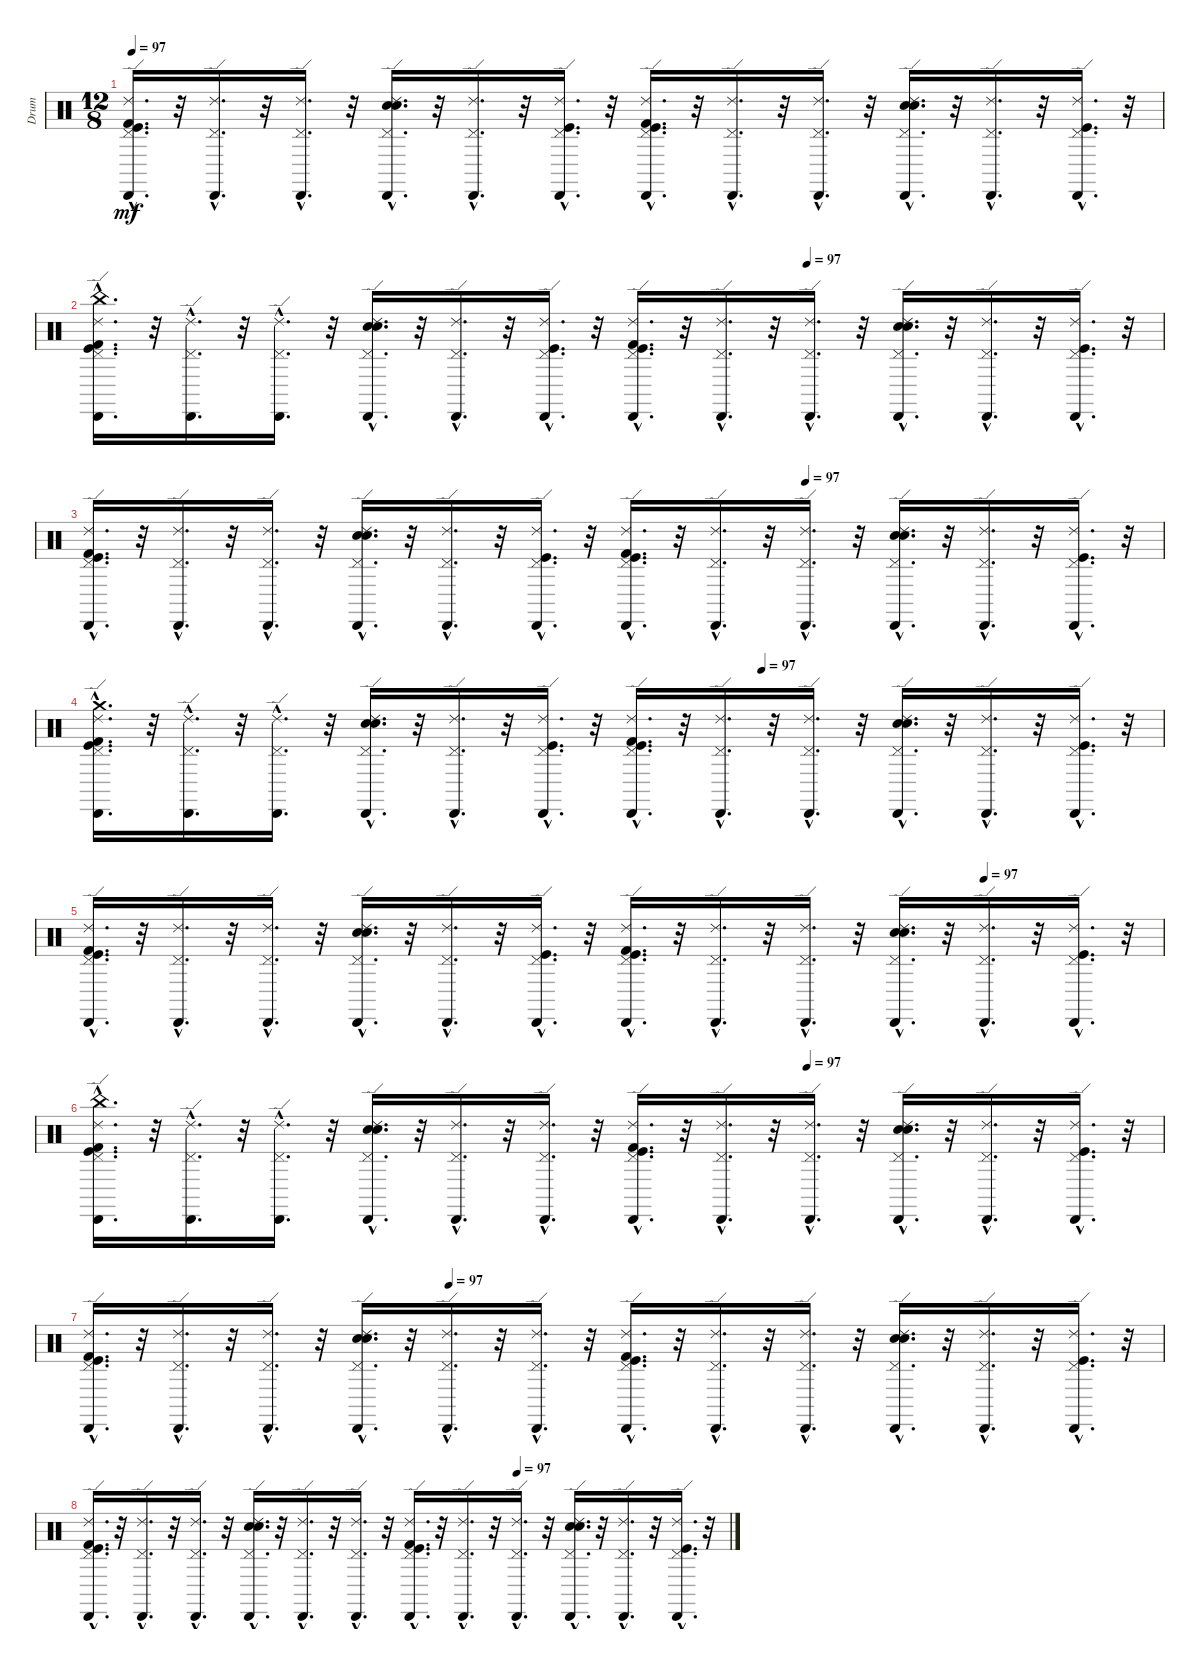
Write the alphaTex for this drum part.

\track ("Drum" "Drum") {instrument percussion}
\staff {score}
\articulation defaults
\ts (12 8)
\tempo 97
\clef neutral
\ks c
("Kick (hit)"{hac} "Pedal Hi-Hat (hit)"{hac} "Cabasa (hit)"{hac} "Ride (edge) 2"{hac} "Kick (hit) 2"{hac}).16{d dy mf} r.32 ("Cabasa (hit)"{hac} "Pedal Hi-Hat (hit)"{hac} "Ride (edge) 2"{hac}).16{d} r.32 ("Pedal Hi-Hat (hit)"{hac} "Cabasa (hit)"{hac} "Ride (edge) 2"{hac}).16{d} r.32 ("Pedal Hi-Hat (hit)"{hac} "Electric Snare (hit)"{hac} "Snare (hit) 2"{hac} "Cabasa (hit)"{hac} "Ride (edge) 2"{hac}).16{d} r.32 ("Cabasa (hit)"{hac} "Pedal Hi-Hat (hit)"{hac} "Ride (edge) 2"{hac}).16{d} r.32 ("Kick (hit)"{hac} "Cabasa (hit)"{hac} "Pedal Hi-Hat (hit)"{hac} "Ride (edge) 2"{hac}).16{d} r.32 ("Kick (hit) 2"{hac} "Kick (hit)"{hac} "Ride (edge) 2"{hac} "Pedal Hi-Hat (hit)"{hac} "Cabasa (hit)"{hac}).16{d} r.32 ("Cabasa (hit)"{hac} "Pedal Hi-Hat (hit)"{hac} "Ride (edge) 2"{hac}).16{d} r.32 ("Cabasa (hit)"{hac} "Pedal Hi-Hat (hit)"{hac} "Ride (edge) 2"{hac}).16{d} r.32 ("Ride (edge) 2"{hac} "Cabasa (hit)"{hac} "Pedal Hi-Hat (hit)"{hac} "Electric Snare (hit)"{hac} "Snare (hit) 2"{hac}).16{d} r.32 ("Cabasa (hit)"{hac} "Pedal Hi-Hat (hit)"{hac} "Ride (edge) 2"{hac}).16{d} r.32 ("Kick (hit)"{hac} "Cabasa (hit)"{hac} "Pedal Hi-Hat (hit)"{hac} "Ride (edge) 2"{hac}).16{d} r.32 |
\tempo (97 0.6666666666666666)
("China (hit)"{hac} "Kick (hit) 2"{hac} "Ride (edge) 2"{hac} "Cabasa (hit)"{hac} "Pedal Hi-Hat (hit)"{hac} "Kick (hit)"{hac}).16{d} r.32 ("Ride (edge) 2"{hac} "Pedal Hi-Hat (hit)"{hac} "Cabasa (hit)"{hac}).16{d} r.32 ("Ride (edge) 2"{hac} "Cabasa (hit)"{hac} "Pedal Hi-Hat (hit)"{hac}).16{d} r.32 ("Ride (edge) 2"{hac} "Cabasa (hit)"{hac} "Snare (hit) 2"{hac} "Electric Snare (hit)"{hac} "Pedal Hi-Hat (hit)"{hac}).16{d} r.32 ("Ride (edge) 2"{hac} "Pedal Hi-Hat (hit)"{hac} "Cabasa (hit)"{hac}).16{d} r.32 ("Kick (hit)"{hac} "Ride (edge) 2"{hac} "Pedal Hi-Hat (hit)"{hac} "Cabasa (hit)"{hac}).16{d} r.32 ("Cabasa (hit)"{hac} "Pedal Hi-Hat (hit)"{hac} "Ride (edge) 2"{hac} "Kick (hit)"{hac} "Kick (hit) 2"{hac}).16{d} r.32 ("Ride (edge) 2"{hac} "Pedal Hi-Hat (hit)"{hac} "Cabasa (hit)"{hac}).16{d} r.32 ("Ride (edge) 2"{hac} "Pedal Hi-Hat (hit)"{hac} "Cabasa (hit)"{hac}).16{d} r.32 ("Snare (hit) 2"{hac} "Electric Snare (hit)"{hac} "Pedal Hi-Hat (hit)"{hac} "Cabasa (hit)"{hac} "Ride (edge) 2"{hac}).16{d} r.32 ("Ride (edge) 2"{hac} "Pedal Hi-Hat (hit)"{hac} "Cabasa (hit)"{hac}).16{d} r.32 ("Kick (hit)"{hac} "Ride (edge) 2"{hac} "Pedal Hi-Hat (hit)"{hac} "Cabasa (hit)"{hac}).16{d} r.32 |
\tempo (97 0.6666666666666666)
("Kick (hit)"{hac} "Pedal Hi-Hat (hit)"{hac} "Cabasa (hit)"{hac} "Ride (edge) 2"{hac} "Kick (hit) 2"{hac}).16{d} r.32 ("Cabasa (hit)"{hac} "Pedal Hi-Hat (hit)"{hac} "Ride (edge) 2"{hac}).16{d} r.32 ("Pedal Hi-Hat (hit)"{hac} "Cabasa (hit)"{hac} "Ride (edge) 2"{hac}).16{d} r.32 ("Pedal Hi-Hat (hit)"{hac} "Electric Snare (hit)"{hac} "Snare (hit) 2"{hac} "Cabasa (hit)"{hac} "Ride (edge) 2"{hac}).16{d} r.32 ("Cabasa (hit)"{hac} "Pedal Hi-Hat (hit)"{hac} "Ride (edge) 2"{hac}).16{d} r.32 ("Kick (hit)"{hac} "Cabasa (hit)"{hac} "Pedal Hi-Hat (hit)"{hac} "Ride (edge) 2"{hac}).16{d} r.32 ("Kick (hit) 2"{hac} "Kick (hit)"{hac} "Ride (edge) 2"{hac} "Pedal Hi-Hat (hit)"{hac} "Cabasa (hit)"{hac}).16{d} r.32 ("Cabasa (hit)"{hac} "Pedal Hi-Hat (hit)"{hac} "Ride (edge) 2"{hac}).16{d} r.32 ("Cabasa (hit)"{hac} "Pedal Hi-Hat (hit)"{hac} "Ride (edge) 2"{hac}).16{d} r.32 ("Ride (edge) 2"{hac} "Cabasa (hit)"{hac} "Pedal Hi-Hat (hit)"{hac} "Electric Snare (hit)"{hac} "Snare (hit) 2"{hac}).16{d} r.32 ("Cabasa (hit)"{hac} "Pedal Hi-Hat (hit)"{hac} "Ride (edge) 2"{hac}).16{d} r.32 ("Kick (hit)"{hac} "Cabasa (hit)"{hac} "Pedal Hi-Hat (hit)"{hac} "Ride (edge) 2"{hac}).16{d} r.32 |
\tempo (97 0.625)
("Kick (hit)"{hac} "Pedal Hi-Hat (hit)"{hac} "Cabasa (hit)"{hac} "Ride (edge) 2"{hac} "Kick (hit) 2"{hac} "Crash medium (hit)"{hac}).16{d} r.32 ("Cabasa (hit)"{hac} "Pedal Hi-Hat (hit)"{hac} "Ride (edge) 2"{hac}).16{d} r.32 ("Pedal Hi-Hat (hit)"{hac} "Cabasa (hit)"{hac} "Ride (edge) 2"{hac}).16{d} r.32 ("Pedal Hi-Hat (hit)"{hac} "Electric Snare (hit)"{hac} "Snare (hit) 2"{hac} "Cabasa (hit)"{hac} "Ride (edge) 2"{hac}).16{d} r.32 ("Cabasa (hit)"{hac} "Pedal Hi-Hat (hit)"{hac} "Ride (edge) 2"{hac}).16{d} r.32 ("Cabasa (hit)"{hac} "Pedal Hi-Hat (hit)"{hac} "Ride (edge) 2"{hac} "Kick (hit)"{hac}).16{d} r.32 ("Kick (hit) 2"{hac} "Kick (hit)"{hac} "Ride (edge) 2"{hac} "Pedal Hi-Hat (hit)"{hac} "Cabasa (hit)"{hac}).16{d} r.32 ("Cabasa (hit)"{hac} "Pedal Hi-Hat (hit)"{hac} "Ride (edge) 2"{hac}).16{d} r.32 ("Cabasa (hit)"{hac} "Pedal Hi-Hat (hit)"{hac} "Ride (edge) 2"{hac}).16{d} r.32 ("Ride (edge) 2"{hac} "Cabasa (hit)"{hac} "Pedal Hi-Hat (hit)"{hac} "Electric Snare (hit)"{hac} "Snare (hit) 2"{hac}).16{d} r.32 ("Cabasa (hit)"{hac} "Pedal Hi-Hat (hit)"{hac} "Ride (edge) 2"{hac}).16{d} r.32 ("Cabasa (hit)"{hac} "Pedal Hi-Hat (hit)"{hac} "Ride (edge) 2"{hac} "Kick (hit)"{hac}).16{d} r.32 |
\tempo (97 0.8333333333333334)
("Kick (hit) 2"{hac} "Ride (edge) 2"{hac} "Cabasa (hit)"{hac} "Pedal Hi-Hat (hit)"{hac} "Kick (hit)"{hac}).16{d} r.32 ("Ride (edge) 2"{hac} "Pedal Hi-Hat (hit)"{hac} "Cabasa (hit)"{hac}).16{d} r.32 ("Ride (edge) 2"{hac} "Cabasa (hit)"{hac} "Pedal Hi-Hat (hit)"{hac}).16{d} r.32 ("Ride (edge) 2"{hac} "Cabasa (hit)"{hac} "Snare (hit) 2"{hac} "Electric Snare (hit)"{hac} "Pedal Hi-Hat (hit)"{hac}).16{d} r.32 ("Ride (edge) 2"{hac} "Pedal Hi-Hat (hit)"{hac} "Cabasa (hit)"{hac}).16{d} r.32 ("Ride (edge) 2"{hac} "Pedal Hi-Hat (hit)"{hac} "Cabasa (hit)"{hac} "Kick (hit)"{hac}).16{d} r.32 ("Cabasa (hit)"{hac} "Pedal Hi-Hat (hit)"{hac} "Ride (edge) 2"{hac} "Kick (hit)"{hac} "Kick (hit) 2"{hac}).16{d} r.32 ("Ride (edge) 2"{hac} "Pedal Hi-Hat (hit)"{hac} "Cabasa (hit)"{hac}).16{d} r.32 ("Ride (edge) 2"{hac} "Pedal Hi-Hat (hit)"{hac} "Cabasa (hit)"{hac}).16{d} r.32 ("Snare (hit) 2"{hac} "Electric Snare (hit)"{hac} "Pedal Hi-Hat (hit)"{hac} "Cabasa (hit)"{hac} "Ride (edge) 2"{hac}).16{d} r.32 ("Ride (edge) 2"{hac} "Pedal Hi-Hat (hit)"{hac} "Cabasa (hit)"{hac}).16{d} r.32 ("Ride (edge) 2"{hac} "Pedal Hi-Hat (hit)"{hac} "Cabasa (hit)"{hac} "Kick (hit)"{hac}).16{d} r.32 |
\tempo (97 0.6666666666666666)
("Kick (hit)"{hac} "Cabasa (hit)"{hac} "Pedal Hi-Hat (hit)"{hac} "Kick (hit) 2"{hac} "Ride (edge) 2"{hac} "China (hit)"{hac}).16{d} r.32 ("Ride (edge) 2"{hac} "Cabasa (hit)"{hac} "Pedal Hi-Hat (hit)"{hac}).16{d} r.32 ("Ride (edge) 2"{hac} "Cabasa (hit)"{hac} "Pedal Hi-Hat (hit)"{hac}).16{d} r.32 ("Electric Snare (hit)"{hac} "Cabasa (hit)"{hac} "Snare (hit) 2"{hac} "Ride (edge) 2"{hac} "Pedal Hi-Hat (hit)"{hac}).16{d} r.32 ("Ride (edge) 2"{hac} "Pedal Hi-Hat (hit)"{hac} "Cabasa (hit)"{hac}).16{d} r.32 ("Ride (edge) 2"{hac} "Cabasa (hit)"{hac} "Pedal Hi-Hat (hit)"{hac}).16{d} r.32 ("Cabasa (hit)"{hac} "Kick (hit)"{hac} "Kick (hit) 2"{hac} "Ride (edge) 2"{hac} "Pedal Hi-Hat (hit)"{hac}).16{d} r.32 ("Ride (edge) 2"{hac} "Cabasa (hit)"{hac} "Pedal Hi-Hat (hit)"{hac}).16{d} r.32 ("Ride (edge) 2"{hac} "Cabasa (hit)"{hac} "Pedal Hi-Hat (hit)"{hac}).16{d} r.32 ("Snare (hit) 2"{hac} "Electric Snare (hit)"{hac} "Pedal Hi-Hat (hit)"{hac} "Cabasa (hit)"{hac} "Ride (edge) 2"{hac}).16{d} r.32 ("Ride (edge) 2"{hac} "Pedal Hi-Hat (hit)"{hac} "Cabasa (hit)"{hac}).16{d} r.32 ("Ride (edge) 2"{hac} "Cabasa (hit)"{hac} "Pedal Hi-Hat (hit)"{hac} "Kick (hit)"{hac}).16{d} r.32 |
\tempo (97 0.3333333333333333)
("Ride (edge) 2"{hac} "Kick (hit) 2"{hac} "Pedal Hi-Hat (hit)"{hac} "Kick (hit)"{hac} "Cabasa (hit)"{hac}).16{d} r.32 ("Ride (edge) 2"{hac} "Cabasa (hit)"{hac} "Pedal Hi-Hat (hit)"{hac}).16{d} r.32 ("Ride (edge) 2"{hac} "Cabasa (hit)"{hac} "Pedal Hi-Hat (hit)"{hac}).16{d} r.32 ("Cabasa (hit)"{hac} "Ride (edge) 2"{hac} "Snare (hit) 2"{hac} "Electric Snare (hit)"{hac} "Pedal Hi-Hat (hit)"{hac}).16{d} r.32 ("Ride (edge) 2"{hac} "Pedal Hi-Hat (hit)"{hac} "Cabasa (hit)"{hac}).16{d} r.32 ("Ride (edge) 2"{hac} "Pedal Hi-Hat (hit)"{hac} "Cabasa (hit)"{hac}).16{d} r.32 ("Cabasa (hit)"{hac} "Kick (hit)"{hac} "Kick (hit) 2"{hac} "Ride (edge) 2"{hac} "Pedal Hi-Hat (hit)"{hac}).16{d} r.32 ("Ride (edge) 2"{hac} "Pedal Hi-Hat (hit)"{hac} "Cabasa (hit)"{hac}).16{d} r.32 ("Ride (edge) 2"{hac} "Cabasa (hit)"{hac} "Pedal Hi-Hat (hit)"{hac}).16{d} r.32 ("Electric Snare (hit)"{hac} "Snare (hit) 2"{hac} "Ride (edge) 2"{hac} "Pedal Hi-Hat (hit)"{hac} "Cabasa (hit)"{hac}).16{d} r.32 ("Ride (edge) 2"{hac} "Pedal Hi-Hat (hit)"{hac} "Cabasa (hit)"{hac}).16{d} r.32 ("Ride (edge) 2"{hac} "Cabasa (hit)"{hac} "Pedal Hi-Hat (hit)"{hac} "Kick (hit)"{hac}).16{d} r.32 |
\tempo (97 0.6666666666666666)
("Kick (hit)"{hac} "Cabasa (hit)"{hac} "Ride (edge) 2"{hac} "Kick (hit) 2"{hac} "Pedal Hi-Hat (hit)"{hac}).16{d} r.32 ("Ride (edge) 2"{hac} "Cabasa (hit)"{hac} "Pedal Hi-Hat (hit)"{hac}).16{d} r.32 ("Ride (edge) 2"{hac} "Cabasa (hit)"{hac} "Pedal Hi-Hat (hit)"{hac}).16{d} r.32 ("Pedal Hi-Hat (hit)"{hac} "Electric Snare (hit)"{hac} "Cabasa (hit)"{hac} "Snare (hit) 2"{hac} "Ride (edge) 2"{hac}).16{d} r.32 ("Ride (edge) 2"{hac} "Cabasa (hit)"{hac} "Pedal Hi-Hat (hit)"{hac}).16{d} r.32 ("Ride (edge) 2"{hac} "Cabasa (hit)"{hac} "Pedal Hi-Hat (hit)"{hac}).16{d} r.32 ("Pedal Hi-Hat (hit)"{hac} "Ride (edge) 2"{hac} "Kick (hit)"{hac} "Cabasa (hit)"{hac} "Kick (hit) 2"{hac}).16{d} r.32 ("Ride (edge) 2"{hac} "Pedal Hi-Hat (hit)"{hac} "Cabasa (hit)"{hac}).16{d} r.32 ("Ride (edge) 2"{hac} "Cabasa (hit)"{hac} "Pedal Hi-Hat (hit)"{hac}).16{d} r.32 ("Electric Snare (hit)"{hac} "Ride (edge) 2"{hac} "Cabasa (hit)"{hac} "Snare (hit) 2"{hac} "Pedal Hi-Hat (hit)"{hac}).16{d} r.32 ("Ride (edge) 2"{hac} "Pedal Hi-Hat (hit)"{hac} "Cabasa (hit)"{hac}).16{d} r.32 ("Ride (edge) 2"{hac} "Cabasa (hit)"{hac} "Pedal Hi-Hat (hit)"{hac} "Kick (hit)"{hac}).16{d} r.32
